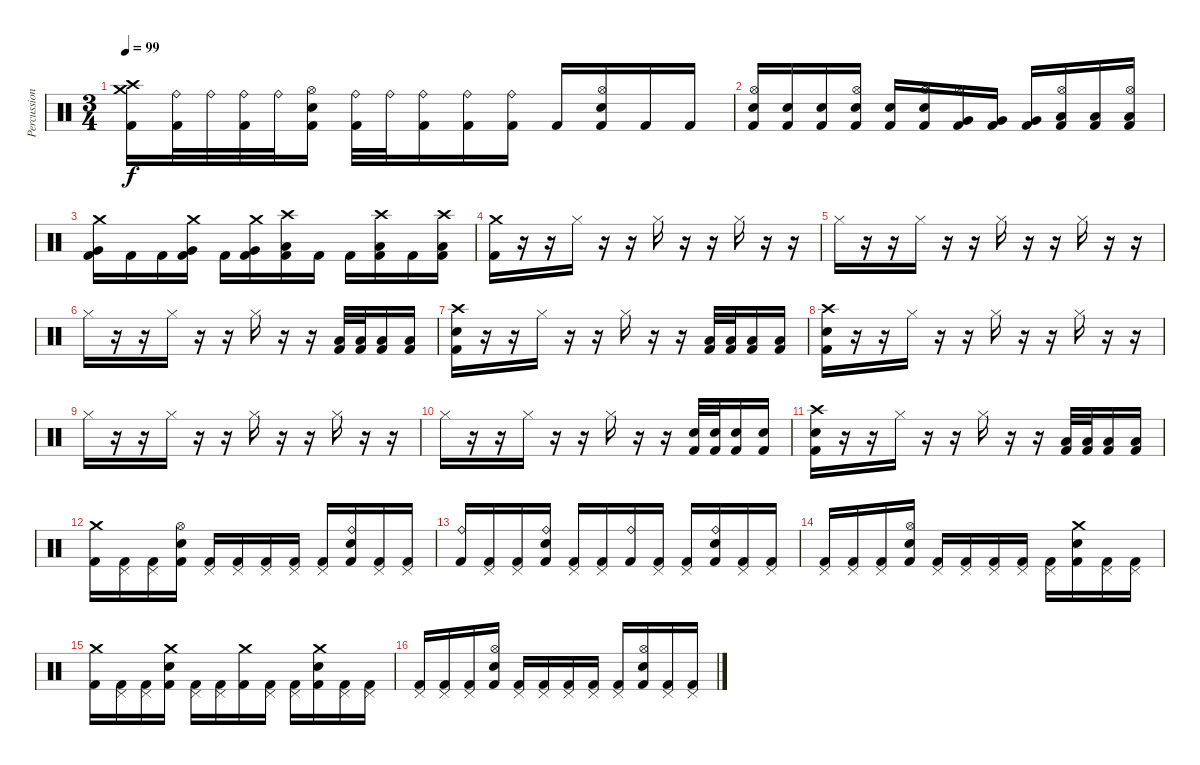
\track ("Percussion" "Percussion") {instrument percussion}
\staff {score}
\articulation defaults
\ts (3 4)
\tempo 99
\clef neutral
\ks c
("Crash medium (hit)" "Crash high (hit)" "Kick (hit) 2").16{dy f} ("Ride (bell)" "Kick (hit) 2").32 "Ride (bell)".32 ("Ride (bell)" "Kick (hit) 2").32 "Ride (bell)".32 ("Hi-Hat (open)" "Electric Snare (hit)" "Kick (hit) 2").16 ("Ride (bell)" "Kick (hit) 2").32 "Ride (bell)".32 ("Ride (bell)" "Kick (hit) 2").16 ("Ride (bell)" "Kick (hit) 2").16 ("Ride (bell)" "Kick (hit) 2").16 "Kick (hit) 2".16 ("Hi-Hat (open)" "Electric Snare (hit)" "Kick (hit) 2").16 "Kick (hit) 2".16 "Kick (hit) 2".16 |
("Hi-Hat (open)" "Electric Snare (hit)" "Kick (hit) 2").16 ("Electric Snare (hit)" "Kick (hit) 2").16 ("Electric Snare (hit)" "Kick (hit) 2").16 ("Hi-Hat (open)" "Electric Snare (hit)" "Kick (hit) 2").16 ("Electric Snare (hit)" "Kick (hit) 2").16 ("Hi-Hat (open)" "Electric Snare (hit)" "Kick (hit) 2").16 ("Hi-Hat (open)" "Very Low Tom (hit)" "Kick (hit) 2").16 ("Very Low Tom (hit)" "Kick (hit) 2").16 ("Very Low Tom (hit)" "Kick (hit) 2").16 ("Hi-Hat (open)" "Low Floor Tom (hit)" "Kick (hit) 2").16 ("Low Floor Tom (hit)" "Kick (hit) 2").16 ("Hi-Hat (open)" "Low Floor Tom (hit)" "Kick (hit) 2").16 |
("Crash medium (hit)" "Very Low Tom (hit)" "Kick (hit) 2").16 "Kick (hit) 2".16 "Kick (hit) 2".16 ("Crash medium (hit)" "Very Low Tom (hit)" "Kick (hit) 2").16 "Kick (hit) 2".16 ("Crash medium (hit)" "Very Low Tom (hit)" "Kick (hit) 2").16 ("Crash high (hit)" "Low Floor Tom (hit)" "Kick (hit) 2").16 "Kick (hit) 2".16 "Kick (hit) 2".16 ("Crash high (hit)" "Low Floor Tom (hit)" "Kick (hit) 2").16 "Kick (hit) 2".16 ("Crash high (hit)" "Low Floor Tom (hit)" "Kick (hit) 2").16 |
("Crash medium (hit)" "Kick (hit) 2").16 r.16 r.16 "Hi-Hat (closed)".16 r.16 r.16 "Hi-Hat (closed)".16 r.16 r.16 "Hi-Hat (closed)".16 r.16 r.16 |
"Hi-Hat (closed)".16 r.16 r.16 "Hi-Hat (closed)".16 r.16 r.16 "Hi-Hat (closed)".16 r.16 r.16 "Hi-Hat (closed)".16 r.16 r.16 |
"Hi-Hat (closed)".16 r.16 r.16 "Hi-Hat (closed)".16 r.16 r.16 "Hi-Hat (closed)".16 r.16 r.16 ("Low Floor Tom (hit)" "Kick (hit) 2").32 ("Low Floor Tom (hit)" "Kick (hit) 2").32 ("Low Floor Tom (hit)" "Kick (hit) 2").16 ("Low Floor Tom (hit)" "Kick (hit) 2").16 |
("Crash high (hit)" "Electric Snare (hit)" "Kick (hit) 2").16 r.16 r.16 "Hi-Hat (closed)".16 r.16 r.16 "Hi-Hat (closed)".16 r.16 r.16 ("Low Floor Tom (hit)" "Kick (hit) 2").32 ("Low Floor Tom (hit)" "Kick (hit) 2").32 ("Low Floor Tom (hit)" "Kick (hit) 2").16 ("Low Floor Tom (hit)" "Kick (hit) 2").16 |
("Crash high (hit)" "Electric Snare (hit)" "Kick (hit) 2").16 r.16 r.16 "Hi-Hat (closed)".16 r.16 r.16 "Hi-Hat (closed)".16 r.16 r.16 "Hi-Hat (closed)".16 r.16 r.16 |
"Hi-Hat (closed)".16 r.16 r.16 "Hi-Hat (closed)".16 r.16 r.16 "Hi-Hat (closed)".16 r.16 r.16 "Hi-Hat (closed)".16 r.16 r.16 |
"Hi-Hat (closed)".16 r.16 r.16 "Hi-Hat (closed)".16 r.16 r.16 "Hi-Hat (closed)".16 r.16 r.16 ("Electric Snare (hit)" "Kick (hit) 2").32 ("Electric Snare (hit)" "Kick (hit) 2").32 ("Electric Snare (hit)" "Kick (hit) 2").16 ("Electric Snare (hit)" "Kick (hit) 2").16 |
("Crash high (hit)" "Electric Snare (hit)" "Kick (hit) 2").16 r.16 r.16 "Hi-Hat (closed)".16 r.16 r.16 "Hi-Hat (closed)".16 r.16 r.16 ("Low Floor Tom (hit)" "Kick (hit) 2").32 ("Low Floor Tom (hit)" "Kick (hit) 2").32 ("Low Floor Tom (hit)" "Kick (hit) 2").16 ("Low Floor Tom (hit)" "Kick (hit) 2").16 |
("Crash medium (hit)" "Kick (hit) 2").16 ("Pedal Hi-Hat (hit)" "Kick (hit) 2").16 ("Pedal Hi-Hat (hit)" "Kick (hit) 2").16 ("Hi-Hat (open)" "Electric Snare (hit)" "Kick (hit) 2").16 ("Pedal Hi-Hat (hit)" "Kick (hit) 2").16 ("Pedal Hi-Hat (hit)" "Kick (hit) 2").16 ("Pedal Hi-Hat (hit)" "Kick (hit) 2").16 ("Pedal Hi-Hat (hit)" "Kick (hit) 2").16 ("Pedal Hi-Hat (hit)" "Kick (hit) 2").16 ("Ride (bell)" "Electric Snare (hit)" "Kick (hit) 2").16 ("Pedal Hi-Hat (hit)" "Kick (hit) 2").16 ("Pedal Hi-Hat (hit)" "Kick (hit) 2").16 |
("Ride (bell)" "Kick (hit) 2").16 ("Pedal Hi-Hat (hit)" "Kick (hit) 2").16 ("Pedal Hi-Hat (hit)" "Kick (hit) 2").16 ("Ride (bell)" "Electric Snare (hit)" "Kick (hit) 2").16 ("Pedal Hi-Hat (hit)" "Kick (hit) 2").16 ("Pedal Hi-Hat (hit)" "Kick (hit) 2").16 ("Ride (bell)" "Kick (hit) 2").16 ("Pedal Hi-Hat (hit)" "Kick (hit) 2").16 ("Pedal Hi-Hat (hit)" "Kick (hit) 2").16 ("Ride (bell)" "Electric Snare (hit)" "Kick (hit) 2").16 ("Pedal Hi-Hat (hit)" "Kick (hit) 2").16 ("Pedal Hi-Hat (hit)" "Kick (hit) 2").16 |
("Pedal Hi-Hat (hit)" "Kick (hit) 2").16 ("Pedal Hi-Hat (hit)" "Kick (hit) 2").16 ("Pedal Hi-Hat (hit)" "Kick (hit) 2").16 ("Hi-Hat (open)" "Electric Snare (hit)" "Kick (hit) 2").16 ("Pedal Hi-Hat (hit)" "Kick (hit) 2").16 ("Pedal Hi-Hat (hit)" "Kick (hit) 2").16 ("Pedal Hi-Hat (hit)" "Kick (hit) 2").16 ("Pedal Hi-Hat (hit)" "Kick (hit) 2").16 ("Pedal Hi-Hat (hit)" "Kick (hit) 2").16 ("Crash medium (hit)" "Electric Snare (hit)" "Kick (hit) 2").16 ("Pedal Hi-Hat (hit)" "Kick (hit) 2").16 ("Pedal Hi-Hat (hit)" "Kick (hit) 2").16 |
("Crash medium (hit)" "Kick (hit) 2").16 ("Pedal Hi-Hat (hit)" "Kick (hit) 2").16 ("Pedal Hi-Hat (hit)" "Kick (hit) 2").16 ("Crash medium (hit)" "Electric Snare (hit)" "Kick (hit) 2").16 ("Pedal Hi-Hat (hit)" "Kick (hit) 2").16 ("Pedal Hi-Hat (hit)" "Kick (hit) 2").16 ("Crash medium (hit)" "Kick (hit) 2").16 ("Pedal Hi-Hat (hit)" "Kick (hit) 2").16 ("Pedal Hi-Hat (hit)" "Kick (hit) 2").16 ("Crash medium (hit)" "Electric Snare (hit)" "Kick (hit) 2").16 ("Pedal Hi-Hat (hit)" "Kick (hit) 2").16 ("Pedal Hi-Hat (hit)" "Kick (hit) 2").16 |
("Pedal Hi-Hat (hit)" "Kick (hit) 2").16 ("Pedal Hi-Hat (hit)" "Kick (hit) 2").16 ("Pedal Hi-Hat (hit)" "Kick (hit) 2").16 ("Hi-Hat (open)" "Electric Snare (hit)" "Kick (hit) 2").16 ("Pedal Hi-Hat (hit)" "Kick (hit) 2").16 ("Pedal Hi-Hat (hit)" "Kick (hit) 2").16 ("Pedal Hi-Hat (hit)" "Kick (hit) 2").16 ("Pedal Hi-Hat (hit)" "Kick (hit) 2").16 ("Pedal Hi-Hat (hit)" "Kick (hit) 2").16 ("Hi-Hat (open)" "Electric Snare (hit)" "Kick (hit) 2").16 ("Pedal Hi-Hat (hit)" "Kick (hit) 2").16 ("Pedal Hi-Hat (hit)" "Kick (hit) 2").16
